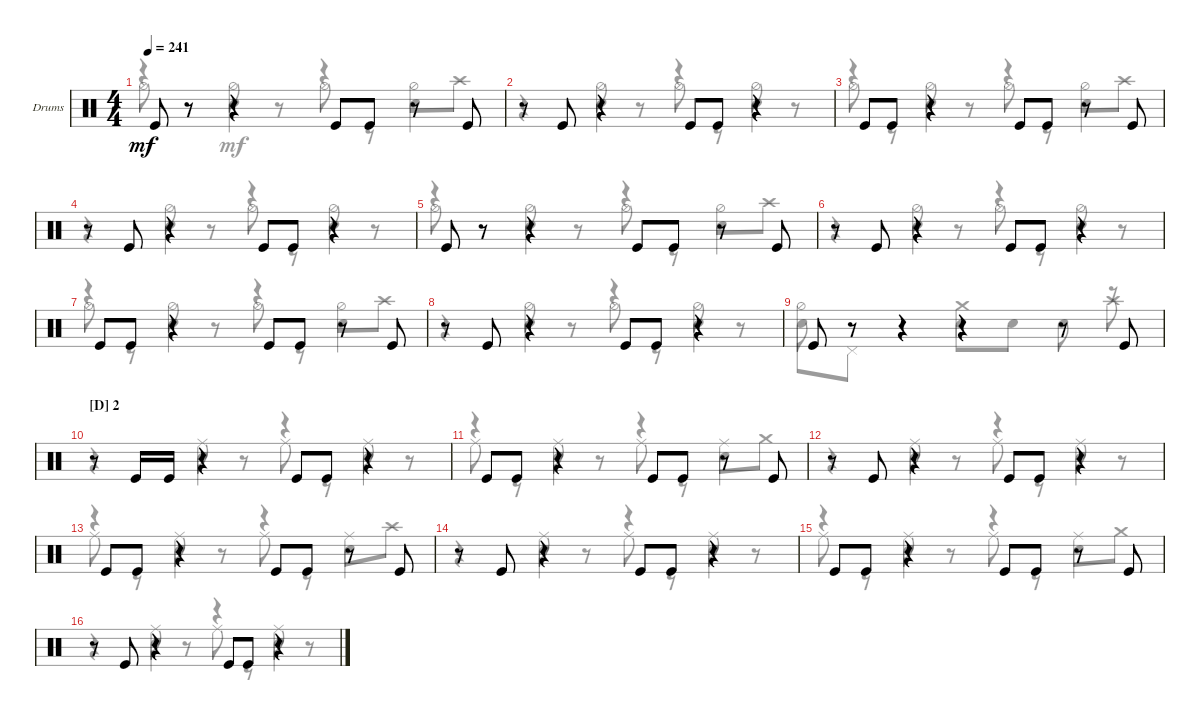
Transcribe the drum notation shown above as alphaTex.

\defaultSystemsLayout 4
\bracketExtendMode groupsimilarinstruments
\firstSystemTrackNameOrientation horizontal
\otherSystemsTrackNameOrientation horizontal
\track ("Drumkit" "Drums") {instrument percussion}
\staff {score}
\articulation defaults
\voice
\ts (4 4)
\tempo 241
\clef neutral
\ks c "Kick (hit)".8{dy mf}
r.8 r.4 "Kick (hit)".8 "Kick (hit)".8 r.8 "Kick (hit)".8 |
r.8 "Kick (hit)".8 r.4 "Kick (hit)".8 "Kick (hit)".8 r.4 |
"Kick (hit)".8 "Kick (hit)".8 r.4 "Kick (hit)".8 "Kick (hit)".8 r.8 "Kick (hit)".8 |
r.8 "Kick (hit)".8 r.4 "Kick (hit)".8 "Kick (hit)".8 r.4 |
"Kick (hit)".8 r.8 r.4 "Kick (hit)".8 "Kick (hit)".8 r.8 "Kick (hit)".8 |
r.8 "Kick (hit)".8 r.4 "Kick (hit)".8 "Kick (hit)".8 r.4 |
"Kick (hit)".8 "Kick (hit)".8 r.4 "Kick (hit)".8 "Kick (hit)".8 r.8 "Kick (hit)".8 |
r.8 "Kick (hit)".8 r.4 "Kick (hit)".8 "Kick (hit)".8 r.4 |
"Kick (hit)".8 r.8 r.4 r.4 r.8 "Kick (hit)".8 |
\section ("D" "2")
r.8 "Kick (hit)".16 "Kick (hit)".16 r.4 "Kick (hit)".8 "Kick (hit)".8 r.4 |
"Kick (hit)".8 "Kick (hit)".8 r.4 "Kick (hit)".8 "Kick (hit)".8 r.8 "Kick (hit)".8 |
r.8 "Kick (hit)".8 r.4 "Kick (hit)".8 "Kick (hit)".8 r.4 |
"Kick (hit)".8 "Kick (hit)".8 r.4 "Kick (hit)".8 "Kick (hit)".8 r.8 "Kick (hit)".8 |
r.8 "Kick (hit)".8 r.4 "Kick (hit)".8 "Kick (hit)".8 r.4 |
"Kick (hit)".8 "Kick (hit)".8 r.4 "Kick (hit)".8 "Kick (hit)".8 r.8 "Kick (hit)".8 |
r.8 "Kick (hit)".8 r.4 "Kick (hit)".8 "Kick (hit)".8 r.4
\voice
\clef neutral
\ottava regular
\simile none
\ks c
r.4{dy mf} "Snare (hit) 2".4 r.4 "Snare (hit) 2".4 |
r.4 "Snare (hit) 2".4 r.4 "Snare (hit) 2".4 |
r.4 "Snare (hit) 2".4 r.4 "Snare (hit) 2".4 |
r.4 "Snare (hit) 2".4 r.4 "Snare (hit) 2".4 |
r.4 "Snare (hit) 2".4 r.4 "Snare (hit) 2".4 |
r.4 "Snare (hit) 2".4 r.4 "Snare (hit) 2".4 |
r.4 "Snare (hit) 2".4 r.4 "Snare (hit) 2".4 |
r.4 "Snare (hit) 2".4 r.4 "Snare (hit) 2".4 |
"Snare (hit) 2".8 r.8 r.4 "Snare (hit) 2".8 "Snare (hit) 2".8 "Snare (hit) 2".8 r.8 |
r.4 "Snare (hit) 2".4 r.4 "Snare (hit) 2".4 |
r.4 "Snare (hit) 2".4 r.4 "Snare (hit) 2".4 |
r.4 "Snare (hit) 2".4 r.4 "Snare (hit) 2".4 |
r.4 "Snare (hit) 2".4 r.4 "Snare (hit) 2".4 |
r.4 "Snare (hit) 2".4 r.4 "Snare (hit) 2".4 |
r.4 "Snare (hit) 2".4 r.4 "Snare (hit) 2".4 |
r.4 "Snare (hit) 2".4 r.4 "Snare (hit) 2".4
\voice
\clef neutral
\ottava regular
\simile none
\ks c "Hi-Hat (half)".8{dy mf}
r.8 "Hi-Hat (half)".8 r.8 "Hi-Hat (half)".8 r.8 "Hi-Hat (half)".8 "Crash high (hit)".8 |
r.4 "Hi-Hat (half)".8 r.8 "Hi-Hat (half)".8 r.8 "Hi-Hat (half)".8 r.8 |
"Hi-Hat (half)".8 r.8 "Hi-Hat (half)".8 r.8 "Hi-Hat (half)".8 r.8 "Hi-Hat (half)".8 "Crash high (hit)".8 |
r.4 "Hi-Hat (half)".8 r.8 "Hi-Hat (half)".8 r.8 "Hi-Hat (half)".8 r.8 |
"Hi-Hat (half)".8 r.8 "Hi-Hat (half)".8 r.8 "Hi-Hat (half)".8 r.8 "Hi-Hat (half)".8 "Crash high (hit)".8 |
r.4 "Hi-Hat (half)".8 r.8 "Hi-Hat (half)".8 r.8 "Hi-Hat (half)".8 r.8 |
"Hi-Hat (half)".8 r.8 "Hi-Hat (half)".8 r.8 "Hi-Hat (half)".8 r.8 "Hi-Hat (half)".8 "Crash high (hit)".8 |
r.4 "Hi-Hat (half)".8 r.8 "Hi-Hat (half)".8 r.8 "Hi-Hat (half)".8 r.8 |
"Hi-Hat (half)".8 "Pedal Hi-Hat (hit)".8 r.4 "Crash medium (hit)".4 r.8 "Crash high (hit)".8 |
r.4 "Ride (middle)".8 r.8 "Ride (middle)".8 r.8 "Ride (middle)".8 r.8 |
"Ride (middle)".8 r.8 "Ride (middle)".8 r.8 "Ride (middle)".8 r.8 "Ride (middle)".8 "Crash medium (hit)".8 |
r.4 "Ride (middle)".8 r.8 "Ride (middle)".8 r.8 "Ride (middle)".8 r.8 |
"Ride (middle)".8 r.8 "Ride (middle)".8 r.8 "Ride (middle)".8 r.8 "Ride (middle)".8 "Crash high (hit)".8 |
r.4 "Ride (middle)".8 r.8 "Ride (middle)".8 r.8 "Ride (middle)".8 r.8 |
"Ride (middle)".8 r.8 "Ride (middle)".8 r.8 "Ride (middle)".8 r.8 "Ride (middle)".8 "Crash medium (hit)".8 |
r.4 "Ride (middle)".8 r.8 "Ride (middle)".8 r.8 "Ride (middle)".8 r.8
